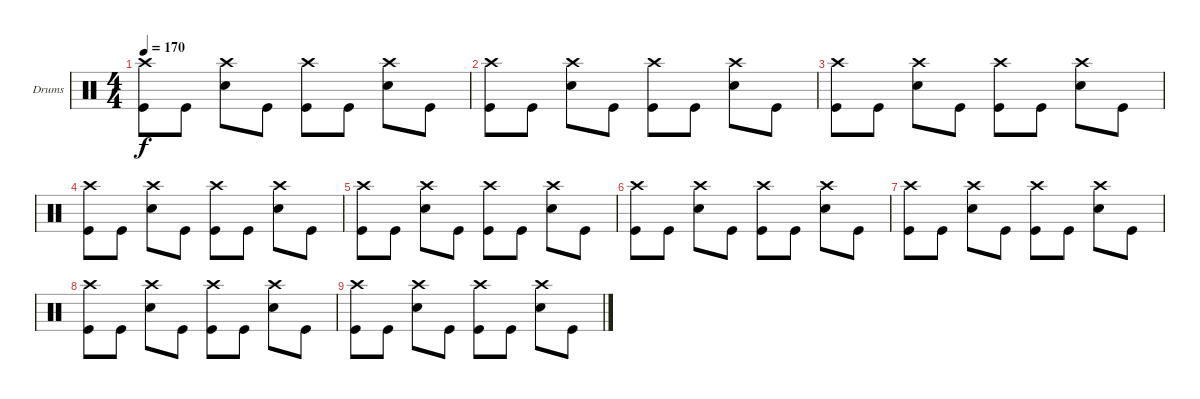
\defaultSystemsLayout 4
\bracketExtendMode groupsimilarinstruments
\firstSystemTrackNameOrientation horizontal
\otherSystemsTrackNameOrientation horizontal
\track ("Drumkit" "Drums") {instrument percussion}
\staff {score}
\articulation defaults
\ts (4 4)
\tempo 170
\clef neutral
\ks c
("Kick (hit)" "Crash high (hit)").8{dy f} "Kick (hit)".8 ("Snare (hit) 2" "Crash high (hit)").8 "Kick (hit)".8 ("Kick (hit)" "Crash high (hit)").8 "Kick (hit)".8 ("Snare (hit) 2" "Crash high (hit)").8 "Kick (hit)".8 |
("Kick (hit)" "Crash high (hit)").8 "Kick (hit)".8 ("Snare (hit) 2" "Crash high (hit)").8 "Kick (hit)".8 ("Kick (hit)" "Crash high (hit)").8 "Kick (hit)".8 ("Snare (hit) 2" "Crash high (hit)").8 "Kick (hit)".8 |
("Kick (hit)" "Crash high (hit)").8 "Kick (hit)".8 ("Snare (hit) 2" "Crash high (hit)").8 "Kick (hit)".8 ("Kick (hit)" "Crash high (hit)").8 "Kick (hit)".8 ("Snare (hit) 2" "Crash high (hit)").8 "Kick (hit)".8 |
("Kick (hit)" "Crash high (hit)").8 "Kick (hit)".8 ("Snare (hit) 2" "Crash high (hit)").8 "Kick (hit)".8 ("Kick (hit)" "Crash high (hit)").8 "Kick (hit)".8 ("Snare (hit) 2" "Crash high (hit)").8 "Kick (hit)".8 |
("Kick (hit)" "Crash high (hit)").8 "Kick (hit)".8 ("Snare (hit) 2" "Crash high (hit)").8 "Kick (hit)".8 ("Kick (hit)" "Crash high (hit)").8 "Kick (hit)".8 ("Snare (hit) 2" "Crash high (hit)").8 "Kick (hit)".8 |
("Kick (hit)" "Crash high (hit)").8 "Kick (hit)".8 ("Snare (hit) 2" "Crash high (hit)").8 "Kick (hit)".8 ("Kick (hit)" "Crash high (hit)").8 "Kick (hit)".8 ("Snare (hit) 2" "Crash high (hit)").8 "Kick (hit)".8 |
("Kick (hit)" "Crash high (hit)").8 "Kick (hit)".8 ("Snare (hit) 2" "Crash high (hit)").8 "Kick (hit)".8 ("Kick (hit)" "Crash high (hit)").8 "Kick (hit)".8 ("Snare (hit) 2" "Crash high (hit)").8 "Kick (hit)".8 |
("Kick (hit)" "Crash high (hit)").8 "Kick (hit)".8 ("Snare (hit) 2" "Crash high (hit)").8 "Kick (hit)".8 ("Kick (hit)" "Crash high (hit)").8 "Kick (hit)".8 ("Snare (hit) 2" "Crash high (hit)").8 "Kick (hit)".8 |
("Kick (hit)" "Crash high (hit)").8 "Kick (hit)".8 ("Snare (hit) 2" "Crash high (hit)").8 "Kick (hit)".8 ("Kick (hit)" "Crash high (hit)").8 "Kick (hit)".8 ("Snare (hit) 2" "Crash high (hit)").8 "Kick (hit)".8
